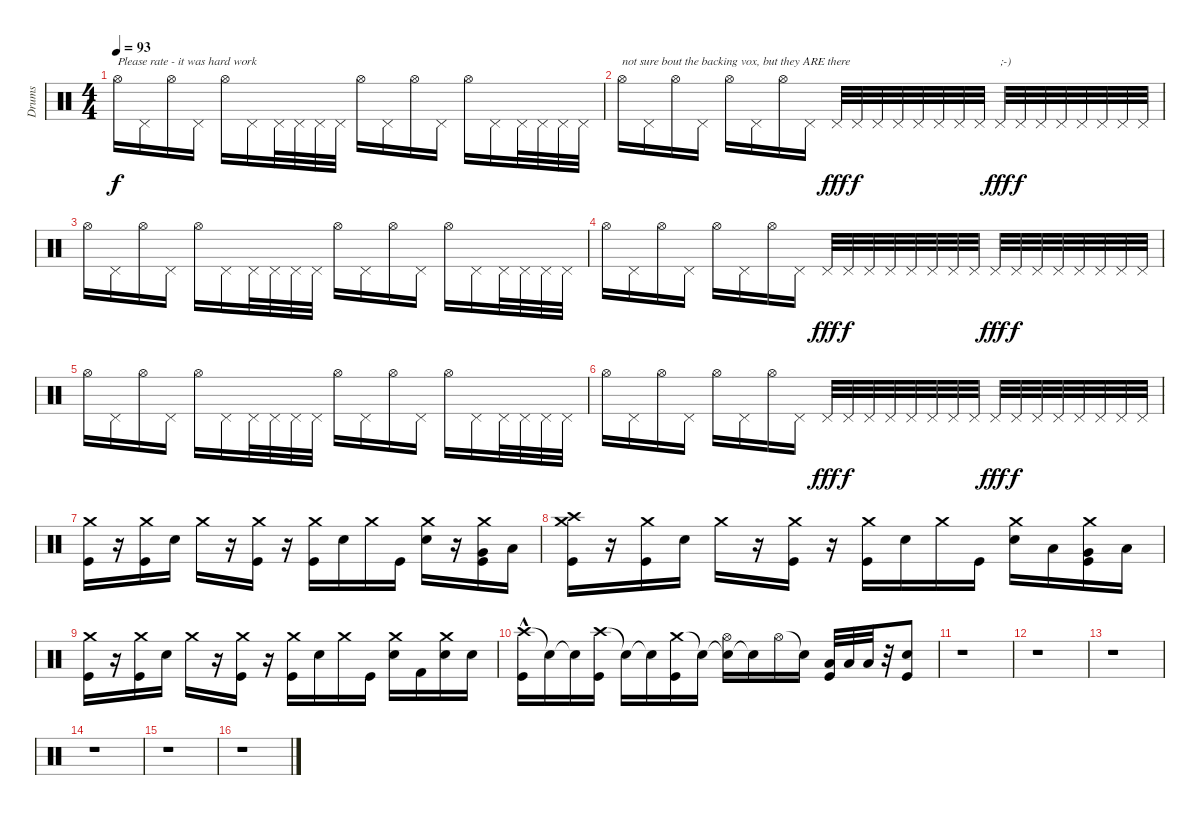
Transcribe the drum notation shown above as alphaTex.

\track ("Drums" "Drums") {instrument percussion}
\staff {score}
\articulation defaults
\ts (4 4)
\tempo 93
\clef neutral
\ks c "Hi-Hat (open)".16{txt "Please rate - it was hard work" dy f} "Pedal Hi-Hat (hit)".16 "Hi-Hat (open)".16 "Pedal Hi-Hat (hit)".16 "Hi-Hat (open)".16 "Pedal Hi-Hat (hit)".16 "Pedal Hi-Hat (hit)".32 "Pedal Hi-Hat (hit)".32 "Pedal Hi-Hat (hit)".32 "Pedal Hi-Hat (hit)".32 "Hi-Hat (open)".16 "Pedal Hi-Hat (hit)".16 "Hi-Hat (open)".16 "Pedal Hi-Hat (hit)".16 "Hi-Hat (open)".16 "Pedal Hi-Hat (hit)".16 "Pedal Hi-Hat (hit)".32 "Pedal Hi-Hat (hit)".32 "Pedal Hi-Hat (hit)".32 "Pedal Hi-Hat (hit)".32
|
"Hi-Hat (open)".16{txt "not sure bout the backing vox, but they ARE there "} "Pedal Hi-Hat (hit)".16 "Hi-Hat (open)".16 "Pedal Hi-Hat (hit)".16 "Hi-Hat (open)".16 "Pedal Hi-Hat (hit)".16 "Hi-Hat (open)".16 "Pedal Hi-Hat (hit)".16 "Pedal Hi-Hat (hit)".32{dy fff} "Pedal Hi-Hat (hit)".32{dy f} "Pedal Hi-Hat (hit)".32 "Pedal Hi-Hat (hit)".32 "Pedal Hi-Hat (hit)".32 "Pedal Hi-Hat (hit)".32 "Pedal Hi-Hat (hit)".32 "Pedal Hi-Hat (hit)".32 "Pedal Hi-Hat (hit)".32{txt ";-)" dy fff} "Pedal Hi-Hat (hit)".32{dy f} "Pedal Hi-Hat (hit)".32 "Pedal Hi-Hat (hit)".32 "Pedal Hi-Hat (hit)".32 "Pedal Hi-Hat (hit)".32 "Pedal Hi-Hat (hit)".32 "Pedal Hi-Hat (hit)".32 |
"Hi-Hat (open)".16 "Pedal Hi-Hat (hit)".16 "Hi-Hat (open)".16 "Pedal Hi-Hat (hit)".16 "Hi-Hat (open)".16 "Pedal Hi-Hat (hit)".16 "Pedal Hi-Hat (hit)".32 "Pedal Hi-Hat (hit)".32 "Pedal Hi-Hat (hit)".32 "Pedal Hi-Hat (hit)".32 "Hi-Hat (open)".16 "Pedal Hi-Hat (hit)".16 "Hi-Hat (open)".16 "Pedal Hi-Hat (hit)".16 "Hi-Hat (open)".16 "Pedal Hi-Hat (hit)".16 "Pedal Hi-Hat (hit)".32 "Pedal Hi-Hat (hit)".32 "Pedal Hi-Hat (hit)".32 "Pedal Hi-Hat (hit)".32 |
"Hi-Hat (open)".16 "Pedal Hi-Hat (hit)".16 "Hi-Hat (open)".16 "Pedal Hi-Hat (hit)".16 "Hi-Hat (open)".16 "Pedal Hi-Hat (hit)".16 "Hi-Hat (open)".16 "Pedal Hi-Hat (hit)".16 "Pedal Hi-Hat (hit)".32{dy fff} "Pedal Hi-Hat (hit)".32{dy f} "Pedal Hi-Hat (hit)".32 "Pedal Hi-Hat (hit)".32 "Pedal Hi-Hat (hit)".32 "Pedal Hi-Hat (hit)".32 "Pedal Hi-Hat (hit)".32 "Pedal Hi-Hat (hit)".32 "Pedal Hi-Hat (hit)".32{dy fff} "Pedal Hi-Hat (hit)".32{dy f} "Pedal Hi-Hat (hit)".32 "Pedal Hi-Hat (hit)".32 "Pedal Hi-Hat (hit)".32 "Pedal Hi-Hat (hit)".32 "Pedal Hi-Hat (hit)".32 "Pedal Hi-Hat (hit)".32 |
"Hi-Hat (open)".16 "Pedal Hi-Hat (hit)".16 "Hi-Hat (open)".16 "Pedal Hi-Hat (hit)".16 "Hi-Hat (open)".16 "Pedal Hi-Hat (hit)".16 "Pedal Hi-Hat (hit)".32 "Pedal Hi-Hat (hit)".32 "Pedal Hi-Hat (hit)".32 "Pedal Hi-Hat (hit)".32 "Hi-Hat (open)".16 "Pedal Hi-Hat (hit)".16 "Hi-Hat (open)".16 "Pedal Hi-Hat (hit)".16 "Hi-Hat (open)".16 "Pedal Hi-Hat (hit)".16 "Pedal Hi-Hat (hit)".32 "Pedal Hi-Hat (hit)".32 "Pedal Hi-Hat (hit)".32 "Pedal Hi-Hat (hit)".32 |
"Hi-Hat (open)".16 "Pedal Hi-Hat (hit)".16 "Hi-Hat (open)".16 "Pedal Hi-Hat (hit)".16 "Hi-Hat (open)".16 "Pedal Hi-Hat (hit)".16 "Hi-Hat (open)".16 "Pedal Hi-Hat (hit)".16 "Pedal Hi-Hat (hit)".32{dy fff} "Pedal Hi-Hat (hit)".32{dy f} "Pedal Hi-Hat (hit)".32 "Pedal Hi-Hat (hit)".32 "Pedal Hi-Hat (hit)".32 "Pedal Hi-Hat (hit)".32 "Pedal Hi-Hat (hit)".32 "Pedal Hi-Hat (hit)".32 "Pedal Hi-Hat (hit)".32{dy fff} "Pedal Hi-Hat (hit)".32{dy f} "Pedal Hi-Hat (hit)".32 "Pedal Hi-Hat (hit)".32 "Pedal Hi-Hat (hit)".32 "Pedal Hi-Hat (hit)".32 "Pedal Hi-Hat (hit)".32 "Pedal Hi-Hat (hit)".32 |
("Crash medium (hit)" "Kick (hit)").16 r.16 ("Crash medium (hit)" "Kick (hit)").16 "Electric Snare (hit)".16 "Crash medium (hit)".16 r.16 ("Crash medium (hit)" "Kick (hit)").16 r.16 ("Crash medium (hit)" "Kick (hit)").16 "Electric Snare (hit)".16 "Crash medium (hit)".16 "Kick (hit)".16 ("Crash medium (hit)" "Electric Snare (hit)").16 r.16 ("Crash medium (hit)" "Very Low Tom (hit)" "Kick (hit)").16 "Low Floor Tom (hit)".16 |
("Crash medium (hit)" "Crash high (hit)" "Kick (hit)").16 r.16 ("Crash medium (hit)" "Kick (hit)").16 "Electric Snare (hit)".16 "Crash medium (hit)".16 r.16 ("Crash medium (hit)" "Kick (hit)").16 r.16 ("Crash medium (hit)" "Kick (hit)").16 "Electric Snare (hit)".16 "Crash medium (hit)".16 "Kick (hit)".16 ("Crash medium (hit)" "Electric Snare (hit)").16 "Low Floor Tom (hit)".16 ("Crash medium (hit)" "Very Low Tom (hit)" "Kick (hit)").16 "Low Floor Tom (hit)".16 |
("Crash medium (hit)" "Kick (hit)").16 r.16 ("Crash medium (hit)" "Kick (hit)").16 "Electric Snare (hit)".16 "Crash medium (hit)".16 r.16 ("Crash medium (hit)" "Kick (hit)").16 r.16 ("Crash medium (hit)" "Kick (hit)").16 "Electric Snare (hit)".16 "Crash medium (hit)".16 "Kick (hit)".16 ("Crash medium (hit)" "Electric Snare (hit)").16 "Kick (hit) 2".16 ("Crash medium (hit)" "Electric Snare (hit)").16 "Electric Snare (hit)".16 |
("Crash high (hit)"{hac} "Kick (hit)").16 "Snare (hit)"{t}.16 "Snare (hit)"{t}.16 ("Crash high (hit)" "Kick (hit)").16 "Snare (hit)"{t}.16 "Snare (hit)"{t}.16 ("Crash medium (hit)" "Kick (hit)").16 "Snare (hit)"{t}.16 ("Snare (hit)"{t} "Hi-Hat (open)").16 "Snare (hit)"{t}.16 "Hi-Hat (open)".16 "Snare (hit)"{t}.16 ("Low Tom (hit)" "Kick (hit)").32 "Low Floor Tom (hit)".32 "Low Floor Tom (hit)".32 r.32 ("Electric Snare (hit)" "Kick (hit)").8 |
r.1 |
r.1 |
r.1 |
r.1 |
r.1 |
r.1
